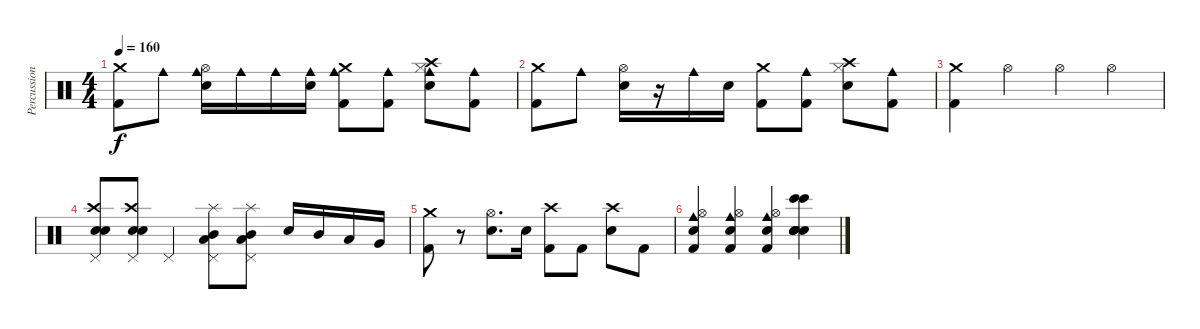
\track ("Percussion" "Percussion") {instrument percussion}
\staff {score}
\articulation defaults
\ts (4 4)
\tempo 160
\clef neutral
\ks c
("Crash medium (hit)" "Kick (hit) 2").8{dy f} "Cowbell medium (hit)".8 ("Hi-Hat (open)" "Electric Snare (hit)" "Cowbell medium (hit)").16 "Cowbell medium (hit)".16 "Cowbell medium (hit)".16 ("Electric Snare (hit)" "Cowbell medium (hit)").16 ("Crash medium (hit)" "Kick (hit) 2" "Cowbell medium (hit)").8 ("Kick (hit) 2" "Cowbell medium (hit)").8 ("Crash high (hit)" "Electric Snare (hit)" "Hi-Hat (closed)" "Cowbell medium (hit)").8 ("Kick (hit) 2" "Cowbell medium (hit)").8 |
("Crash medium (hit)" "Kick (hit) 2").8 "Cowbell medium (hit)".8 ("Hi-Hat (open)" "Electric Snare (hit)").16 r.16 "Cowbell medium (hit)".16 "Electric Snare (hit)".16 ("Crash medium (hit)" "Kick (hit) 2").8 ("Kick (hit) 2" "Cowbell medium (hit)").8 ("Crash high (hit)" "Electric Snare (hit)" "Hi-Hat (closed)").8 ("Kick (hit) 2" "Cowbell medium (hit)").8 |
("Crash medium (hit)" "Kick (hit) 2").4 "Hi-Hat (open)".4 "Hi-Hat (open)".4 "Hi-Hat (open)".4 |
("Crash high (hit)" "Electric Snare (hit)" "Electric Snare (hit)" "Pedal Hi-Hat (hit)").8{bu 60} ("Crash high (hit)" "Electric Snare (hit)" "Electric Snare (hit)" "Pedal Hi-Hat (hit)").8{bu 60} "Pedal Hi-Hat (hit)".4 ("Mid Tom (hit)" "Low Tom (hit)" "Splash (hit)" "Pedal Hi-Hat (hit)").8{bu 60} ("Mid Tom (hit)" "Low Tom (hit)" "Splash (hit)" "Pedal Hi-Hat (hit)").8{bu 60} "Electric Snare (hit)".16 "Mid Tom (hit)".16 "Low Tom (hit)".16 "Very Low Tom (hit)".16 |
("Crash medium (hit)" "Kick (hit) 2").8 r.8 ("Hi-Hat (open)" "Electric Snare (hit)").8{d} "Electric Snare (hit)".16 ("Crash high (hit)" "Kick (hit) 2").8 "Kick (hit) 2".8 ("Crash high (hit)" "Electric Snare (hit)").8 "Kick (hit) 2".8 |
("Hi-Hat (open)" "Electric Snare (hit)" "Cowbell medium (hit)" "Kick (hit) 2").4 ("Hi-Hat (open)" "Electric Snare (hit)" "Cowbell medium (hit)" "Kick (hit) 2").4 ("Hi-Hat (open)" "Electric Snare (hit)" "Cowbell medium (hit)" "Kick (hit) 2").4 ("Bongo High (hit)" "Hand Clap (hit)" "Hand Clap (hit)" "Hand Clap (hit)" "Electric Snare (hit)" "Bongo High (hit)").4{bu 60}
